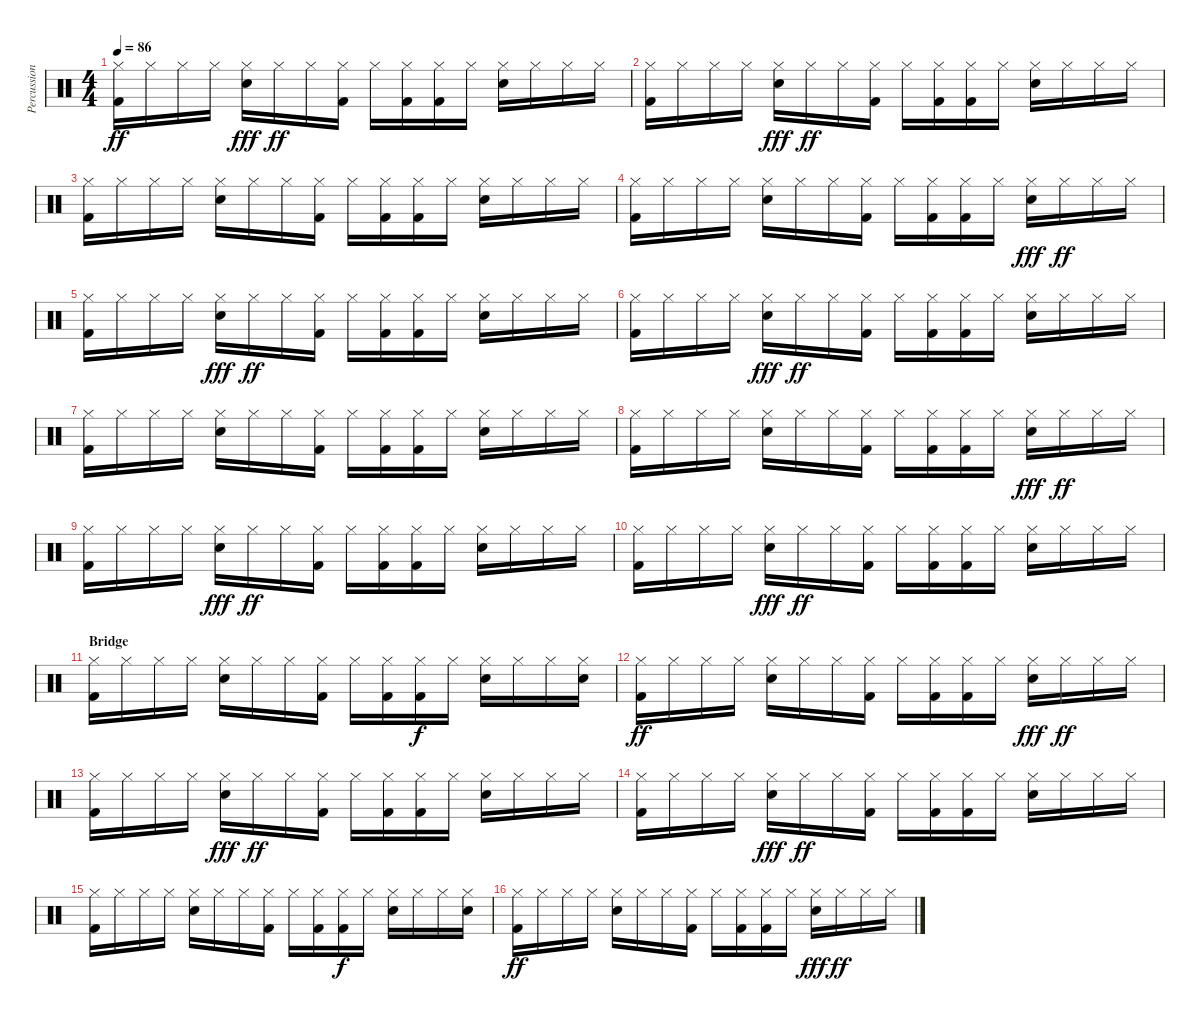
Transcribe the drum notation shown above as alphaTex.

\track ("Percussion" "Percussion") {instrument percussion}
\staff {score}
\articulation defaults
\ts (4 4)
\tempo 86
\clef neutral
\ks c
("Hi-Hat (closed)" "Kick (hit) 2").16{dy ff} "Hi-Hat (closed)".16 "Hi-Hat (closed)".16 "Hi-Hat (closed)".16 ("Snare (hit) 2" "Hi-Hat (closed)").16{dy fff} "Hi-Hat (closed)".16{dy ff} "Hi-Hat (closed)".16 ("Hi-Hat (closed)" "Kick (hit) 2").16 "Hi-Hat (closed)".16 ("Kick (hit) 2" "Hi-Hat (closed)").16 ("Kick (hit) 2" "Hi-Hat (closed)").16 "Hi-Hat (closed)".16 ("Hi-Hat (closed)" "Snare (hit) 2").16 "Hi-Hat (closed)".16 "Hi-Hat (closed)".16 "Hi-Hat (closed)".16 |
("Hi-Hat (closed)" "Kick (hit) 2").16 "Hi-Hat (closed)".16 "Hi-Hat (closed)".16 "Hi-Hat (closed)".16 ("Snare (hit) 2" "Hi-Hat (closed)").16{dy fff} "Hi-Hat (closed)".16{dy ff} "Hi-Hat (closed)".16 ("Hi-Hat (closed)" "Kick (hit) 2").16 "Hi-Hat (closed)".16 ("Kick (hit) 2" "Hi-Hat (closed)").16 ("Kick (hit) 2" "Hi-Hat (closed)").16 "Hi-Hat (closed)".16 ("Hi-Hat (closed)" "Snare (hit) 2").16 "Hi-Hat (closed)".16 "Hi-Hat (closed)".16 "Hi-Hat (closed)".16 |
("Hi-Hat (closed)" "Kick (hit) 2").16 "Hi-Hat (closed)".16 "Hi-Hat (closed)".16 "Hi-Hat (closed)".16 ("Hi-Hat (closed)" "Snare (hit) 2").16 "Hi-Hat (closed)".16 "Hi-Hat (closed)".16 ("Hi-Hat (closed)" "Kick (hit) 2").16 "Hi-Hat (closed)".16 ("Hi-Hat (closed)" "Kick (hit) 2").16 ("Hi-Hat (closed)" "Kick (hit) 2").16 "Hi-Hat (closed)".16 ("Hi-Hat (closed)" "Snare (hit) 2").16 "Hi-Hat (closed)".16 "Hi-Hat (closed)".16 "Hi-Hat (closed)".16 |
("Hi-Hat (closed)" "Kick (hit) 2").16 "Hi-Hat (closed)".16 "Hi-Hat (closed)".16 "Hi-Hat (closed)".16 ("Hi-Hat (closed)" "Snare (hit) 2").16 "Hi-Hat (closed)".16 "Hi-Hat (closed)".16 ("Hi-Hat (closed)" "Kick (hit) 2").16 "Hi-Hat (closed)".16 ("Hi-Hat (closed)" "Kick (hit) 2").16 ("Hi-Hat (closed)" "Kick (hit) 2").16 "Hi-Hat (closed)".16 ("Hi-Hat (closed)" "Snare (hit) 2").16{dy fff} "Hi-Hat (closed)".16{dy ff} "Hi-Hat (closed)".16 "Hi-Hat (closed)".16 |
("Hi-Hat (closed)" "Kick (hit) 2").16 "Hi-Hat (closed)".16 "Hi-Hat (closed)".16 "Hi-Hat (closed)".16 ("Snare (hit) 2" "Hi-Hat (closed)").16{dy fff} "Hi-Hat (closed)".16{dy ff} "Hi-Hat (closed)".16 ("Hi-Hat (closed)" "Kick (hit) 2").16 "Hi-Hat (closed)".16 ("Kick (hit) 2" "Hi-Hat (closed)").16 ("Kick (hit) 2" "Hi-Hat (closed)").16 "Hi-Hat (closed)".16 ("Hi-Hat (closed)" "Snare (hit) 2").16 "Hi-Hat (closed)".16 "Hi-Hat (closed)".16 "Hi-Hat (closed)".16 |
("Hi-Hat (closed)" "Kick (hit) 2").16 "Hi-Hat (closed)".16 "Hi-Hat (closed)".16 "Hi-Hat (closed)".16 ("Snare (hit) 2" "Hi-Hat (closed)").16{dy fff} "Hi-Hat (closed)".16{dy ff} "Hi-Hat (closed)".16 ("Hi-Hat (closed)" "Kick (hit) 2").16 "Hi-Hat (closed)".16 ("Kick (hit) 2" "Hi-Hat (closed)").16 ("Kick (hit) 2" "Hi-Hat (closed)").16 "Hi-Hat (closed)".16 ("Hi-Hat (closed)" "Snare (hit) 2").16 "Hi-Hat (closed)".16 "Hi-Hat (closed)".16 "Hi-Hat (closed)".16 |
("Hi-Hat (closed)" "Kick (hit) 2").16 "Hi-Hat (closed)".16 "Hi-Hat (closed)".16 "Hi-Hat (closed)".16 ("Hi-Hat (closed)" "Snare (hit) 2").16 "Hi-Hat (closed)".16 "Hi-Hat (closed)".16 ("Hi-Hat (closed)" "Kick (hit) 2").16 "Hi-Hat (closed)".16 ("Hi-Hat (closed)" "Kick (hit) 2").16 ("Hi-Hat (closed)" "Kick (hit) 2").16 "Hi-Hat (closed)".16 ("Hi-Hat (closed)" "Snare (hit) 2").16 "Hi-Hat (closed)".16 "Hi-Hat (closed)".16 "Hi-Hat (closed)".16 |
("Hi-Hat (closed)" "Kick (hit) 2").16 "Hi-Hat (closed)".16 "Hi-Hat (closed)".16 "Hi-Hat (closed)".16 ("Hi-Hat (closed)" "Snare (hit) 2").16 "Hi-Hat (closed)".16 "Hi-Hat (closed)".16 ("Hi-Hat (closed)" "Kick (hit) 2").16 "Hi-Hat (closed)".16 ("Hi-Hat (closed)" "Kick (hit) 2").16 ("Hi-Hat (closed)" "Kick (hit) 2").16 "Hi-Hat (closed)".16 ("Hi-Hat (closed)" "Snare (hit) 2").16{dy fff} "Hi-Hat (closed)".16{dy ff} "Hi-Hat (closed)".16 "Hi-Hat (closed)".16 |
("Hi-Hat (closed)" "Kick (hit) 2").16 "Hi-Hat (closed)".16 "Hi-Hat (closed)".16 "Hi-Hat (closed)".16 ("Snare (hit) 2" "Hi-Hat (closed)").16{dy fff} "Hi-Hat (closed)".16{dy ff} "Hi-Hat (closed)".16 ("Hi-Hat (closed)" "Kick (hit) 2").16 "Hi-Hat (closed)".16 ("Kick (hit) 2" "Hi-Hat (closed)").16 ("Kick (hit) 2" "Hi-Hat (closed)").16 "Hi-Hat (closed)".16 ("Hi-Hat (closed)" "Snare (hit) 2").16 "Hi-Hat (closed)".16 "Hi-Hat (closed)".16 "Hi-Hat (closed)".16 |
("Hi-Hat (closed)" "Kick (hit) 2").16 "Hi-Hat (closed)".16 "Hi-Hat (closed)".16 "Hi-Hat (closed)".16 ("Snare (hit) 2" "Hi-Hat (closed)").16{dy fff} "Hi-Hat (closed)".16{dy ff} "Hi-Hat (closed)".16 ("Hi-Hat (closed)" "Kick (hit) 2").16 "Hi-Hat (closed)".16 ("Kick (hit) 2" "Hi-Hat (closed)").16 ("Kick (hit) 2" "Hi-Hat (closed)").16 "Hi-Hat (closed)".16 ("Hi-Hat (closed)" "Snare (hit) 2").16 "Hi-Hat (closed)".16 "Hi-Hat (closed)".16 "Hi-Hat (closed)".16 |
\section ("" "Bridge")
("Hi-Hat (closed)" "Kick (hit) 2").16 "Hi-Hat (closed)".16 "Hi-Hat (closed)".16 "Hi-Hat (closed)".16 ("Hi-Hat (closed)" "Snare (hit) 2").16 "Hi-Hat (closed)".16 "Hi-Hat (closed)".16 ("Hi-Hat (closed)" "Kick (hit) 2").16 "Hi-Hat (closed)".16 ("Hi-Hat (closed)" "Kick (hit) 2").16 ("Hi-Hat (closed)" "Kick (hit) 2").16{dy f} "Hi-Hat (closed)".16 ("Hi-Hat (closed)" "Snare (hit) 2").16 "Hi-Hat (closed)".16 "Hi-Hat (closed)".16 ("Hi-Hat (closed)" "Snare (hit) 2").16 |
("Hi-Hat (closed)" "Kick (hit) 2").16{dy ff} "Hi-Hat (closed)".16 "Hi-Hat (closed)".16 "Hi-Hat (closed)".16 ("Hi-Hat (closed)" "Snare (hit) 2").16 "Hi-Hat (closed)".16 "Hi-Hat (closed)".16 ("Hi-Hat (closed)" "Kick (hit) 2").16 "Hi-Hat (closed)".16 ("Hi-Hat (closed)" "Kick (hit) 2").16 ("Hi-Hat (closed)" "Kick (hit) 2").16 "Hi-Hat (closed)".16 ("Hi-Hat (closed)" "Snare (hit) 2").16{dy fff} "Hi-Hat (closed)".16{dy ff} "Hi-Hat (closed)".16 "Hi-Hat (closed)".16 |
("Hi-Hat (closed)" "Kick (hit) 2").16 "Hi-Hat (closed)".16 "Hi-Hat (closed)".16 "Hi-Hat (closed)".16 ("Snare (hit) 2" "Hi-Hat (closed)").16{dy fff} "Hi-Hat (closed)".16{dy ff} "Hi-Hat (closed)".16 ("Hi-Hat (closed)" "Kick (hit) 2").16 "Hi-Hat (closed)".16 ("Kick (hit) 2" "Hi-Hat (closed)").16 ("Kick (hit) 2" "Hi-Hat (closed)").16 "Hi-Hat (closed)".16 ("Hi-Hat (closed)" "Snare (hit) 2").16 "Hi-Hat (closed)".16 "Hi-Hat (closed)".16 "Hi-Hat (closed)".16 |
("Hi-Hat (closed)" "Kick (hit) 2").16 "Hi-Hat (closed)".16 "Hi-Hat (closed)".16 "Hi-Hat (closed)".16 ("Snare (hit) 2" "Hi-Hat (closed)").16{dy fff} "Hi-Hat (closed)".16{dy ff} "Hi-Hat (closed)".16 ("Hi-Hat (closed)" "Kick (hit) 2").16 "Hi-Hat (closed)".16 ("Kick (hit) 2" "Hi-Hat (closed)").16 ("Kick (hit) 2" "Hi-Hat (closed)").16 "Hi-Hat (closed)".16 ("Hi-Hat (closed)" "Snare (hit) 2").16 "Hi-Hat (closed)".16 "Hi-Hat (closed)".16 "Hi-Hat (closed)".16 |
("Hi-Hat (closed)" "Kick (hit) 2").16 "Hi-Hat (closed)".16 "Hi-Hat (closed)".16 "Hi-Hat (closed)".16 ("Hi-Hat (closed)" "Snare (hit) 2").16 "Hi-Hat (closed)".16 "Hi-Hat (closed)".16 ("Hi-Hat (closed)" "Kick (hit) 2").16 "Hi-Hat (closed)".16 ("Hi-Hat (closed)" "Kick (hit) 2").16 ("Hi-Hat (closed)" "Kick (hit) 2").16{dy f} "Hi-Hat (closed)".16 ("Hi-Hat (closed)" "Snare (hit) 2").16 "Hi-Hat (closed)".16 "Hi-Hat (closed)".16 ("Hi-Hat (closed)" "Snare (hit) 2").16 |
("Hi-Hat (closed)" "Kick (hit) 2").16{dy ff} "Hi-Hat (closed)".16 "Hi-Hat (closed)".16 "Hi-Hat (closed)".16 ("Hi-Hat (closed)" "Snare (hit) 2").16 "Hi-Hat (closed)".16 "Hi-Hat (closed)".16 ("Hi-Hat (closed)" "Kick (hit) 2").16 "Hi-Hat (closed)".16 ("Hi-Hat (closed)" "Kick (hit) 2").16 ("Hi-Hat (closed)" "Kick (hit) 2").16 "Hi-Hat (closed)".16 ("Hi-Hat (closed)" "Snare (hit) 2").16{dy fff} "Hi-Hat (closed)".16{dy ff} "Hi-Hat (closed)".16 "Hi-Hat (closed)".16
